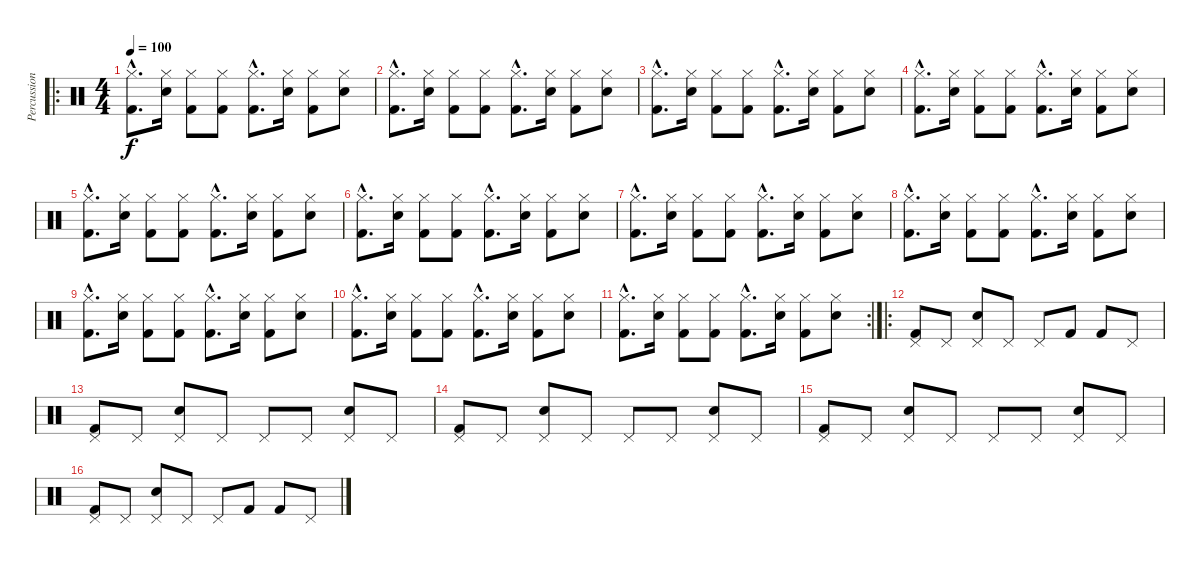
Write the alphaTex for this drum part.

\track ("Percussions" "Percussion") {instrument percussion}
\staff {score}
\articulation defaults
\ro
\ts (4 4)
\tempo 100
\clef neutral
\ks c
("Hi-Hat (closed)"{hac} "Kick (hit) 2"{hac}).8{d dy f} ("Hi-Hat (closed)" "Electric Snare (hit)").16 ("Hi-Hat (closed)" "Kick (hit) 2").8 ("Hi-Hat (closed)" "Kick (hit) 2").8 ("Hi-Hat (closed)"{hac} "Kick (hit) 2"{hac}).8{d} ("Hi-Hat (closed)" "Electric Snare (hit)").16 ("Hi-Hat (closed)" "Kick (hit) 2").8 ("Hi-Hat (closed)" "Electric Snare (hit)").8 |
("Hi-Hat (closed)"{hac} "Kick (hit) 2"{hac}).8{d} ("Hi-Hat (closed)" "Electric Snare (hit)").16 ("Hi-Hat (closed)" "Kick (hit) 2").8 ("Hi-Hat (closed)" "Kick (hit) 2").8 ("Hi-Hat (closed)"{hac} "Kick (hit) 2"{hac}).8{d} ("Hi-Hat (closed)" "Electric Snare (hit)").16 ("Hi-Hat (closed)" "Kick (hit) 2").8 ("Hi-Hat (closed)" "Electric Snare (hit)").8 |
("Hi-Hat (closed)"{hac} "Kick (hit) 2"{hac}).8{d} ("Hi-Hat (closed)" "Electric Snare (hit)").16 ("Hi-Hat (closed)" "Kick (hit) 2").8 ("Hi-Hat (closed)" "Kick (hit) 2").8 ("Hi-Hat (closed)"{hac} "Kick (hit) 2"{hac}).8{d} ("Hi-Hat (closed)" "Electric Snare (hit)").16 ("Hi-Hat (closed)" "Kick (hit) 2").8 ("Hi-Hat (closed)" "Electric Snare (hit)").8 |
("Hi-Hat (closed)"{hac} "Kick (hit) 2"{hac}).8{d} ("Hi-Hat (closed)" "Electric Snare (hit)").16 ("Hi-Hat (closed)" "Kick (hit) 2").8 ("Hi-Hat (closed)" "Kick (hit) 2").8 ("Hi-Hat (closed)"{hac} "Kick (hit) 2"{hac}).8{d} ("Hi-Hat (closed)" "Electric Snare (hit)").16 ("Hi-Hat (closed)" "Kick (hit) 2").8 ("Hi-Hat (closed)" "Electric Snare (hit)").8 |
("Hi-Hat (closed)"{hac} "Kick (hit) 2"{hac}).8{d} ("Hi-Hat (closed)" "Electric Snare (hit)").16 ("Hi-Hat (closed)" "Kick (hit) 2").8 ("Hi-Hat (closed)" "Kick (hit) 2").8 ("Hi-Hat (closed)"{hac} "Kick (hit) 2"{hac}).8{d} ("Hi-Hat (closed)" "Electric Snare (hit)").16 ("Hi-Hat (closed)" "Kick (hit) 2").8 ("Hi-Hat (closed)" "Electric Snare (hit)").8 |
("Hi-Hat (closed)"{hac} "Kick (hit) 2"{hac}).8{d} ("Hi-Hat (closed)" "Electric Snare (hit)").16 ("Hi-Hat (closed)" "Kick (hit) 2").8 ("Hi-Hat (closed)" "Kick (hit) 2").8 ("Hi-Hat (closed)"{hac} "Kick (hit) 2"{hac}).8{d} ("Hi-Hat (closed)" "Electric Snare (hit)").16 ("Hi-Hat (closed)" "Kick (hit) 2").8 ("Hi-Hat (closed)" "Electric Snare (hit)").8 |
("Hi-Hat (closed)"{hac} "Kick (hit) 2"{hac}).8{d} ("Hi-Hat (closed)" "Electric Snare (hit)").16 ("Hi-Hat (closed)" "Kick (hit) 2").8 ("Hi-Hat (closed)" "Kick (hit) 2").8 ("Hi-Hat (closed)"{hac} "Kick (hit) 2"{hac}).8{d} ("Hi-Hat (closed)" "Electric Snare (hit)").16 ("Hi-Hat (closed)" "Kick (hit) 2").8 ("Hi-Hat (closed)" "Electric Snare (hit)").8 |
("Hi-Hat (closed)"{hac} "Kick (hit) 2"{hac}).8{d} ("Hi-Hat (closed)" "Electric Snare (hit)").16 ("Hi-Hat (closed)" "Kick (hit) 2").8 ("Hi-Hat (closed)" "Kick (hit) 2").8 ("Hi-Hat (closed)"{hac} "Kick (hit) 2"{hac}).8{d} ("Hi-Hat (closed)" "Electric Snare (hit)").16 ("Hi-Hat (closed)" "Kick (hit) 2").8 ("Hi-Hat (closed)" "Electric Snare (hit)").8 |
("Hi-Hat (closed)"{hac} "Kick (hit) 2"{hac}).8{d} ("Hi-Hat (closed)" "Electric Snare (hit)").16 ("Hi-Hat (closed)" "Kick (hit) 2").8 ("Hi-Hat (closed)" "Kick (hit) 2").8 ("Hi-Hat (closed)"{hac} "Kick (hit) 2"{hac}).8{d} ("Hi-Hat (closed)" "Electric Snare (hit)").16 ("Hi-Hat (closed)" "Kick (hit) 2").8 ("Hi-Hat (closed)" "Electric Snare (hit)").8 |
("Hi-Hat (closed)"{hac} "Kick (hit) 2"{hac}).8{d} ("Hi-Hat (closed)" "Electric Snare (hit)").16 ("Hi-Hat (closed)" "Kick (hit) 2").8 ("Hi-Hat (closed)" "Kick (hit) 2").8 ("Hi-Hat (closed)"{hac} "Kick (hit) 2"{hac}).8{d} ("Hi-Hat (closed)" "Electric Snare (hit)").16 ("Hi-Hat (closed)" "Kick (hit) 2").8 ("Hi-Hat (closed)" "Electric Snare (hit)").8 |
\rc 2
("Hi-Hat (closed)"{hac} "Kick (hit) 2"{hac}).8{d} ("Hi-Hat (closed)" "Electric Snare (hit)").16 ("Hi-Hat (closed)" "Kick (hit) 2").8 ("Hi-Hat (closed)" "Kick (hit) 2").8 ("Hi-Hat (closed)"{hac} "Kick (hit) 2"{hac}).8{d} ("Hi-Hat (closed)" "Electric Snare (hit)").16 ("Hi-Hat (closed)" "Kick (hit) 2").8 ("Hi-Hat (closed)" "Electric Snare (hit)").8 |
\ro
("Kick (hit) 2" "Pedal Hi-Hat (hit)").8 "Pedal Hi-Hat (hit)".8 ("Electric Snare (hit)" "Pedal Hi-Hat (hit)").8 "Pedal Hi-Hat (hit)".8 "Pedal Hi-Hat (hit)".8 "Kick (hit) 2".8 "Kick (hit) 2".8 "Pedal Hi-Hat (hit)".8 |
("Kick (hit) 2" "Pedal Hi-Hat (hit)").8 "Pedal Hi-Hat (hit)".8 ("Electric Snare (hit)" "Pedal Hi-Hat (hit)").8 "Pedal Hi-Hat (hit)".8 "Pedal Hi-Hat (hit)".8 "Pedal Hi-Hat (hit)".8 ("Electric Snare (hit)" "Pedal Hi-Hat (hit)").8 "Pedal Hi-Hat (hit)".8 |
("Kick (hit) 2" "Pedal Hi-Hat (hit)").8 "Pedal Hi-Hat (hit)".8 ("Electric Snare (hit)" "Pedal Hi-Hat (hit)").8 "Pedal Hi-Hat (hit)".8 "Pedal Hi-Hat (hit)".8 "Pedal Hi-Hat (hit)".8 ("Electric Snare (hit)" "Pedal Hi-Hat (hit)").8 "Pedal Hi-Hat (hit)".8 |
("Kick (hit) 2" "Pedal Hi-Hat (hit)").8 "Pedal Hi-Hat (hit)".8 ("Electric Snare (hit)" "Pedal Hi-Hat (hit)").8 "Pedal Hi-Hat (hit)".8 "Pedal Hi-Hat (hit)".8 "Pedal Hi-Hat (hit)".8 ("Electric Snare (hit)" "Pedal Hi-Hat (hit)").8 "Pedal Hi-Hat (hit)".8 |
("Kick (hit) 2" "Pedal Hi-Hat (hit)").8 "Pedal Hi-Hat (hit)".8 ("Electric Snare (hit)" "Pedal Hi-Hat (hit)").8 "Pedal Hi-Hat (hit)".8 "Pedal Hi-Hat (hit)".8 "Kick (hit) 2".8 "Kick (hit) 2".8 "Pedal Hi-Hat (hit)".8
